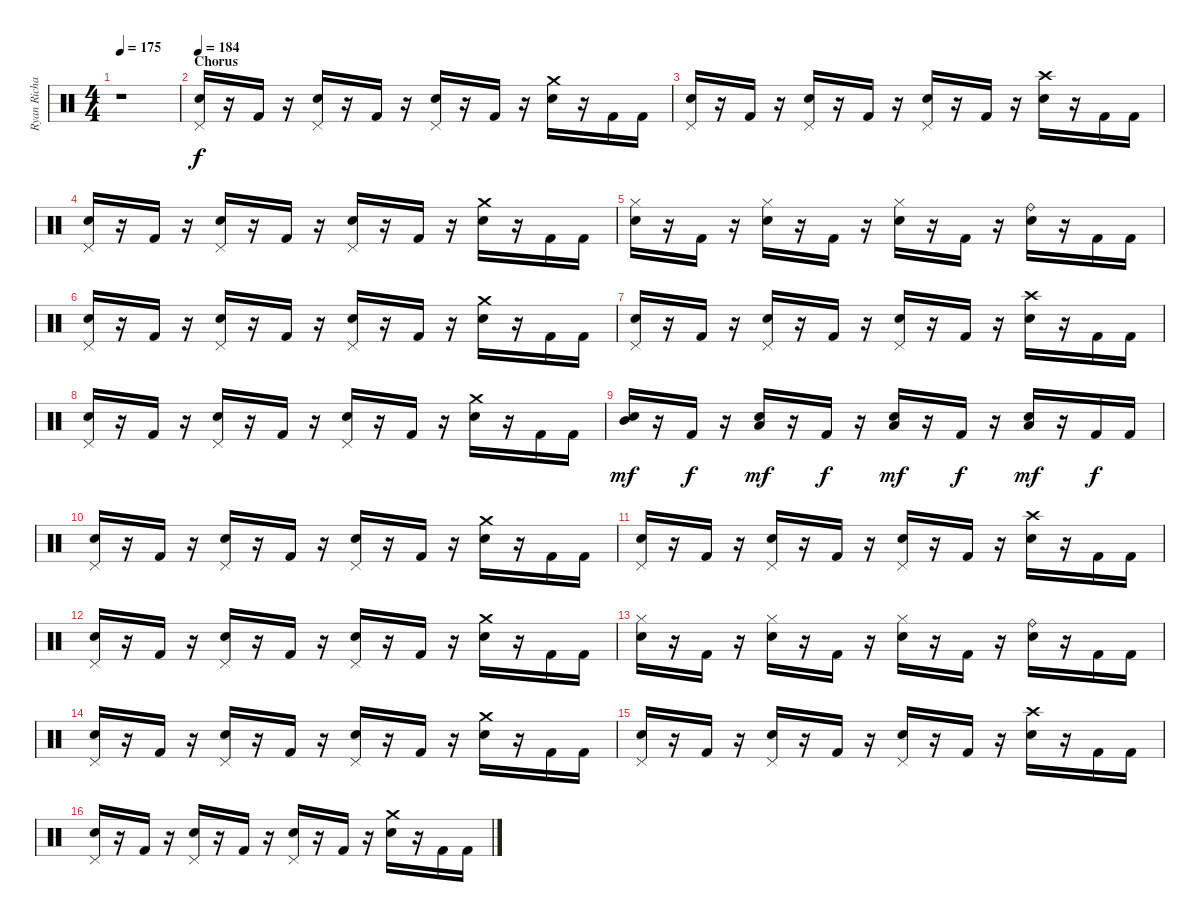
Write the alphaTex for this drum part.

\track ("Ryan Richards" "Ryan Richa") {instrument percussion}
\staff {score}
\articulation defaults
\ts (4 4)
\tempo 175
\clef neutral
\ks c
r.1{dy f} |
\section ("" "Chorus")
\tempo 184
("Snare (hit) 2" "Pedal Hi-Hat (hit)").16 r.16 "Kick (hit) 2".16 r.16 ("Snare (hit) 2" "Pedal Hi-Hat (hit)").16 r.16 "Kick (hit) 2".16 r.16 ("Snare (hit) 2" "Pedal Hi-Hat (hit)").16 r.16 "Kick (hit) 2".16 r.16 ("Snare (hit) 2" "Crash medium (hit)").16 r.16 "Kick (hit) 2".16 "Kick (hit) 2".16 |
("Snare (hit) 2" "Pedal Hi-Hat (hit)").16 r.16 "Kick (hit) 2".16 r.16 ("Snare (hit) 2" "Pedal Hi-Hat (hit)").16 r.16 "Kick (hit) 2".16 r.16 ("Snare (hit) 2" "Pedal Hi-Hat (hit)").16 r.16 "Kick (hit) 2".16 r.16 ("Snare (hit) 2" "Crash high (hit)").16 r.16 "Kick (hit) 2".16 "Kick (hit) 2".16 |
("Snare (hit) 2" "Pedal Hi-Hat (hit)").16 r.16 "Kick (hit) 2".16 r.16 ("Snare (hit) 2" "Pedal Hi-Hat (hit)").16 r.16 "Kick (hit) 2".16 r.16 ("Snare (hit) 2" "Pedal Hi-Hat (hit)").16 r.16 "Kick (hit) 2".16 r.16 ("Snare (hit) 2" "Crash medium (hit)").16 r.16 "Kick (hit) 2".16 "Kick (hit) 2".16 |
("Snare (hit) 2" "Hi-Hat (closed)").16 r.16 "Kick (hit) 2".16 r.16 ("Snare (hit) 2" "Hi-Hat (closed)").16 r.16 "Kick (hit) 2".16 r.16 ("Snare (hit) 2" "Hi-Hat (closed)").16 r.16 "Kick (hit) 2".16 r.16 ("Snare (hit) 2" "Ride (bell)").16 r.16 "Kick (hit) 2".16 "Kick (hit) 2".16 |
("Snare (hit) 2" "Pedal Hi-Hat (hit)").16 r.16 "Kick (hit) 2".16 r.16 ("Snare (hit) 2" "Pedal Hi-Hat (hit)").16 r.16 "Kick (hit) 2".16 r.16 ("Snare (hit) 2" "Pedal Hi-Hat (hit)").16 r.16 "Kick (hit) 2".16 r.16 ("Snare (hit) 2" "Crash medium (hit)").16 r.16 "Kick (hit) 2".16 "Kick (hit) 2".16 |
("Snare (hit) 2" "Pedal Hi-Hat (hit)").16 r.16 "Kick (hit) 2".16 r.16 ("Snare (hit) 2" "Pedal Hi-Hat (hit)").16 r.16 "Kick (hit) 2".16 r.16 ("Snare (hit) 2" "Pedal Hi-Hat (hit)").16 r.16 "Kick (hit) 2".16 r.16 ("Snare (hit) 2" "Crash high (hit)").16 r.16 "Kick (hit) 2".16 "Kick (hit) 2".16 |
("Snare (hit) 2" "Pedal Hi-Hat (hit)").16 r.16 "Kick (hit) 2".16 r.16 ("Snare (hit) 2" "Pedal Hi-Hat (hit)").16 r.16 "Kick (hit) 2".16 r.16 ("Snare (hit) 2" "Pedal Hi-Hat (hit)").16 r.16 "Kick (hit) 2".16 r.16 ("Snare (hit) 2" "Crash medium (hit)").16 r.16 "Kick (hit) 2".16 "Kick (hit) 2".16 |
("Mid Tom (hit)" "Snare (hit) 2").16{dy mf} r.16 "Kick (hit) 2".16{dy f} r.16 ("Low Tom (hit)" "Snare (hit) 2").16{dy mf} r.16 "Kick (hit) 2".16{dy f} r.16 ("Low Tom (hit)" "Snare (hit) 2").16{dy mf} r.16 "Kick (hit) 2".16{dy f} r.16 ("Low Tom (hit)" "Snare (hit) 2").16{dy mf} r.16 "Kick (hit) 2".16{dy f} "Kick (hit) 2".16 |
("Snare (hit) 2" "Pedal Hi-Hat (hit)").16 r.16 "Kick (hit) 2".16 r.16 ("Snare (hit) 2" "Pedal Hi-Hat (hit)").16 r.16 "Kick (hit) 2".16 r.16 ("Snare (hit) 2" "Pedal Hi-Hat (hit)").16 r.16 "Kick (hit) 2".16 r.16 ("Snare (hit) 2" "Crash medium (hit)").16 r.16 "Kick (hit) 2".16 "Kick (hit) 2".16 |
("Snare (hit) 2" "Pedal Hi-Hat (hit)").16 r.16 "Kick (hit) 2".16 r.16 ("Snare (hit) 2" "Pedal Hi-Hat (hit)").16 r.16 "Kick (hit) 2".16 r.16 ("Snare (hit) 2" "Pedal Hi-Hat (hit)").16 r.16 "Kick (hit) 2".16 r.16 ("Snare (hit) 2" "Crash high (hit)").16 r.16 "Kick (hit) 2".16 "Kick (hit) 2".16 |
("Snare (hit) 2" "Pedal Hi-Hat (hit)").16 r.16 "Kick (hit) 2".16 r.16 ("Snare (hit) 2" "Pedal Hi-Hat (hit)").16 r.16 "Kick (hit) 2".16 r.16 ("Snare (hit) 2" "Pedal Hi-Hat (hit)").16 r.16 "Kick (hit) 2".16 r.16 ("Snare (hit) 2" "Crash medium (hit)").16 r.16 "Kick (hit) 2".16 "Kick (hit) 2".16 |
("Snare (hit) 2" "Hi-Hat (closed)").16 r.16 "Kick (hit) 2".16 r.16 ("Snare (hit) 2" "Hi-Hat (closed)").16 r.16 "Kick (hit) 2".16 r.16 ("Snare (hit) 2" "Hi-Hat (closed)").16 r.16 "Kick (hit) 2".16 r.16 ("Snare (hit) 2" "Ride (bell)").16 r.16 "Kick (hit) 2".16 "Kick (hit) 2".16 |
("Snare (hit) 2" "Pedal Hi-Hat (hit)").16 r.16 "Kick (hit) 2".16 r.16 ("Snare (hit) 2" "Pedal Hi-Hat (hit)").16 r.16 "Kick (hit) 2".16 r.16 ("Snare (hit) 2" "Pedal Hi-Hat (hit)").16 r.16 "Kick (hit) 2".16 r.16 ("Snare (hit) 2" "Crash medium (hit)").16 r.16 "Kick (hit) 2".16 "Kick (hit) 2".16 |
("Snare (hit) 2" "Pedal Hi-Hat (hit)").16 r.16 "Kick (hit) 2".16 r.16 ("Snare (hit) 2" "Pedal Hi-Hat (hit)").16 r.16 "Kick (hit) 2".16 r.16 ("Snare (hit) 2" "Pedal Hi-Hat (hit)").16 r.16 "Kick (hit) 2".16 r.16 ("Snare (hit) 2" "Crash high (hit)").16 r.16 "Kick (hit) 2".16 "Kick (hit) 2".16 |
("Snare (hit) 2" "Pedal Hi-Hat (hit)").16 r.16 "Kick (hit) 2".16 r.16 ("Snare (hit) 2" "Pedal Hi-Hat (hit)").16 r.16 "Kick (hit) 2".16 r.16 ("Snare (hit) 2" "Pedal Hi-Hat (hit)").16 r.16 "Kick (hit) 2".16 r.16 ("Snare (hit) 2" "Crash medium (hit)").16 r.16 "Kick (hit) 2".16 "Kick (hit) 2".16
